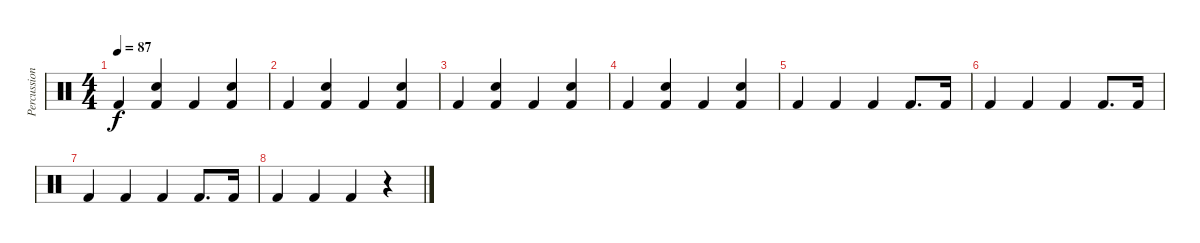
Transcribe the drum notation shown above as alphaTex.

\track ("Percussion" "Percussion") {instrument percussion}
\staff {score}
\articulation defaults
\ts (4 4)
\tempo 87
\clef neutral
\ks c "Kick (hit) 2".4{dy f}
("Kick (hit) 2" "Electric Snare (hit)").4 "Kick (hit) 2".4 ("Kick (hit) 2" "Electric Snare (hit)").4 |
"Kick (hit) 2".4 ("Kick (hit) 2" "Electric Snare (hit)").4 "Kick (hit) 2".4 ("Kick (hit) 2" "Electric Snare (hit)").4 |
"Kick (hit) 2".4 ("Kick (hit) 2" "Electric Snare (hit)").4 "Kick (hit) 2".4 ("Kick (hit) 2" "Electric Snare (hit)").4 |
"Kick (hit) 2".4 ("Kick (hit) 2" "Electric Snare (hit)").4 "Kick (hit) 2".4 ("Kick (hit) 2" "Electric Snare (hit)").4 |
"Kick (hit) 2".4 "Kick (hit) 2".4 "Kick (hit) 2".4 "Kick (hit) 2".8{d} "Kick (hit) 2".16 |
"Kick (hit) 2".4 "Kick (hit) 2".4 "Kick (hit) 2".4 "Kick (hit) 2".8{d} "Kick (hit) 2".16 |
"Kick (hit) 2".4 "Kick (hit) 2".4 "Kick (hit) 2".4 "Kick (hit) 2".8{d} "Kick (hit) 2".16 |
"Kick (hit) 2".4 "Kick (hit) 2".4 "Kick (hit) 2".4 r.4
